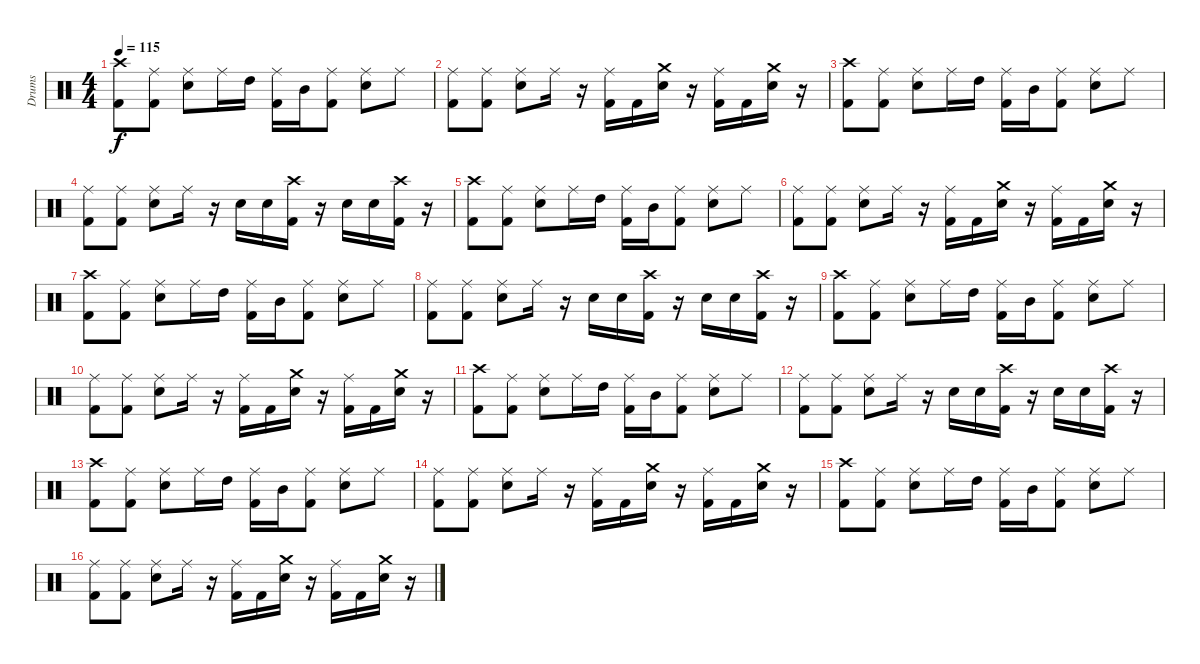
\track ("Drums" "Drums") {instrument percussion}
\staff {score}
\articulation defaults
\ts (4 4)
\tempo 115
\clef neutral
\ks c
("Crash high (hit)" "Kick (hit) 2").8{dy f} ("Ride (middle)" "Kick (hit) 2").8 ("Ride (middle)" "Snare (hit) 2").8 "Ride (middle)".16 "High Tom (hit)".16 ("Ride (middle)" "Kick (hit) 2").16 "Mid Tom (hit)".16 ("Ride (middle)" "Kick (hit) 2").8 ("Ride (middle)" "Snare (hit) 2").8 "Ride (middle)".8 |
("Ride (middle)" "Kick (hit) 2").8 ("Ride (middle)" "Kick (hit) 2").8 ("Ride (middle)" "Snare (hit) 2").8 "Ride (middle)".16 r.16 ("Ride (middle)" "Kick (hit) 2").16 "Kick (hit) 2".16 ("Crash medium (hit)" "Snare (hit) 2").16 r.16 ("Ride (middle)" "Kick (hit) 2").16 "Kick (hit) 2".16 ("Crash medium (hit)" "Snare (hit) 2").16 r.16 |
("Crash high (hit)" "Kick (hit) 2").8 ("Ride (middle)" "Kick (hit) 2").8 ("Ride (middle)" "Snare (hit) 2").8 "Ride (middle)".16 "High Tom (hit)".16 ("Ride (middle)" "Kick (hit) 2").16 "Mid Tom (hit)".16 ("Ride (middle)" "Kick (hit) 2").8 ("Ride (middle)" "Snare (hit) 2").8 "Ride (middle)".8 |
("Ride (middle)" "Kick (hit) 2").8 ("Ride (middle)" "Kick (hit) 2").8 ("Ride (middle)" "Snare (hit) 2").8 "Ride (middle)".16 r.16 "Snare (hit) 2".16 "Snare (hit) 2".16 ("Crash high (hit)" "Kick (hit) 2").16 r.16 "Snare (hit) 2".16 "Snare (hit) 2".16 ("Crash high (hit)" "Kick (hit) 2").16 r.16 |
("Crash high (hit)" "Kick (hit) 2").8 ("Ride (middle)" "Kick (hit) 2").8 ("Ride (middle)" "Snare (hit) 2").8 "Ride (middle)".16 "High Tom (hit)".16 ("Ride (middle)" "Kick (hit) 2").16 "Mid Tom (hit)".16 ("Ride (middle)" "Kick (hit) 2").8 ("Ride (middle)" "Snare (hit) 2").8 "Ride (middle)".8 |
("Ride (middle)" "Kick (hit) 2").8 ("Ride (middle)" "Kick (hit) 2").8 ("Ride (middle)" "Snare (hit) 2").8 "Ride (middle)".16 r.16 ("Ride (middle)" "Kick (hit) 2").16 "Kick (hit) 2".16 ("Crash medium (hit)" "Snare (hit) 2").16 r.16 ("Ride (middle)" "Kick (hit) 2").16 "Kick (hit) 2".16 ("Crash medium (hit)" "Snare (hit) 2").16 r.16 |
("Crash high (hit)" "Kick (hit) 2").8 ("Ride (middle)" "Kick (hit) 2").8 ("Ride (middle)" "Snare (hit) 2").8 "Ride (middle)".16 "High Tom (hit)".16 ("Ride (middle)" "Kick (hit) 2").16 "Mid Tom (hit)".16 ("Ride (middle)" "Kick (hit) 2").8 ("Ride (middle)" "Snare (hit) 2").8 "Ride (middle)".8 |
("Ride (middle)" "Kick (hit) 2").8 ("Ride (middle)" "Kick (hit) 2").8 ("Ride (middle)" "Snare (hit) 2").8 "Ride (middle)".16 r.16 "Snare (hit) 2".16 "Snare (hit) 2".16 ("Crash high (hit)" "Kick (hit) 2").16 r.16 "Snare (hit) 2".16 "Snare (hit) 2".16 ("Crash high (hit)" "Kick (hit) 2").16 r.16 |
("Crash high (hit)" "Kick (hit) 2").8 ("Ride (middle)" "Kick (hit) 2").8 ("Ride (middle)" "Snare (hit) 2").8 "Ride (middle)".16 "High Tom (hit)".16 ("Ride (middle)" "Kick (hit) 2").16 "Mid Tom (hit)".16 ("Ride (middle)" "Kick (hit) 2").8 ("Ride (middle)" "Snare (hit) 2").8 "Ride (middle)".8 |
("Ride (middle)" "Kick (hit) 2").8 ("Ride (middle)" "Kick (hit) 2").8 ("Ride (middle)" "Snare (hit) 2").8 "Ride (middle)".16 r.16 ("Ride (middle)" "Kick (hit) 2").16 "Kick (hit) 2".16 ("Crash medium (hit)" "Snare (hit) 2").16 r.16 ("Ride (middle)" "Kick (hit) 2").16 "Kick (hit) 2".16 ("Crash medium (hit)" "Snare (hit) 2").16 r.16 |
("Crash high (hit)" "Kick (hit) 2").8 ("Ride (middle)" "Kick (hit) 2").8 ("Ride (middle)" "Snare (hit) 2").8 "Ride (middle)".16 "High Tom (hit)".16 ("Ride (middle)" "Kick (hit) 2").16 "Mid Tom (hit)".16 ("Ride (middle)" "Kick (hit) 2").8 ("Ride (middle)" "Snare (hit) 2").8 "Ride (middle)".8 |
("Ride (middle)" "Kick (hit) 2").8 ("Ride (middle)" "Kick (hit) 2").8 ("Ride (middle)" "Snare (hit) 2").8 "Ride (middle)".16 r.16 "Snare (hit) 2".16 "Snare (hit) 2".16 ("Crash high (hit)" "Kick (hit) 2").16 r.16 "Snare (hit) 2".16 "Snare (hit) 2".16 ("Crash high (hit)" "Kick (hit) 2").16 r.16 |
("Crash high (hit)" "Kick (hit) 2").8 ("Ride (middle)" "Kick (hit) 2").8 ("Ride (middle)" "Snare (hit) 2").8 "Ride (middle)".16 "High Tom (hit)".16 ("Ride (middle)" "Kick (hit) 2").16 "Mid Tom (hit)".16 ("Ride (middle)" "Kick (hit) 2").8 ("Ride (middle)" "Snare (hit) 2").8 "Ride (middle)".8 |
("Ride (middle)" "Kick (hit) 2").8 ("Ride (middle)" "Kick (hit) 2").8 ("Ride (middle)" "Snare (hit) 2").8 "Ride (middle)".16 r.16 ("Ride (middle)" "Kick (hit) 2").16 "Kick (hit) 2".16 ("Crash medium (hit)" "Snare (hit) 2").16 r.16 ("Ride (middle)" "Kick (hit) 2").16 "Kick (hit) 2".16 ("Crash medium (hit)" "Snare (hit) 2").16 r.16 |
("Crash high (hit)" "Kick (hit) 2").8 ("Ride (middle)" "Kick (hit) 2").8 ("Ride (middle)" "Snare (hit) 2").8 "Ride (middle)".16 "High Tom (hit)".16 ("Ride (middle)" "Kick (hit) 2").16 "Mid Tom (hit)".16 ("Ride (middle)" "Kick (hit) 2").8 ("Ride (middle)" "Snare (hit) 2").8 "Ride (middle)".8 |
("Ride (middle)" "Kick (hit) 2").8 ("Ride (middle)" "Kick (hit) 2").8 ("Ride (middle)" "Snare (hit) 2").8 "Ride (middle)".16 r.16 ("Ride (middle)" "Kick (hit) 2").16 "Kick (hit) 2".16 ("Crash medium (hit)" "Snare (hit) 2").16 r.16 ("Ride (middle)" "Kick (hit) 2").16 "Kick (hit) 2".16 ("Crash medium (hit)" "Snare (hit) 2").16 r.16
